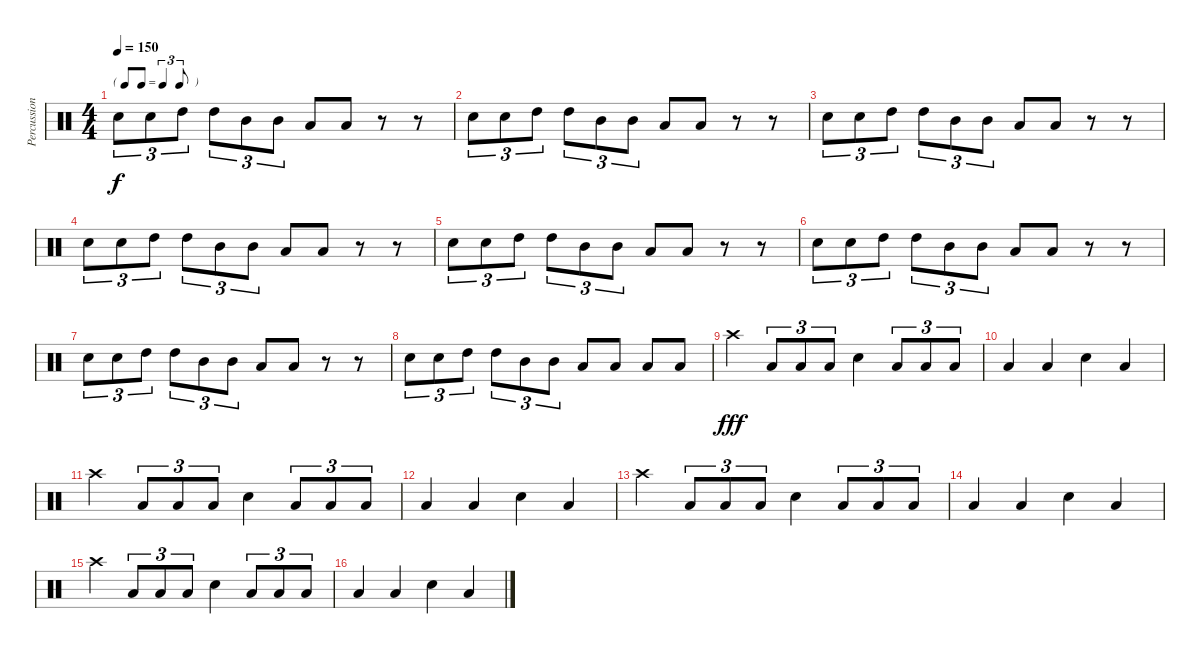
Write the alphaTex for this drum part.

\track ("Percussion" "Percussion") {instrument percussion}
\staff {score}
\articulation defaults
\ts (4 4)
\tf triplet8th
\tempo 150
\clef neutral
\ks c "Electric Snare (hit)".8{tu (3 2) dy f} "Electric Snare (hit)".8{tu (3 2)} "High Tom (hit)".8{tu (3 2)} "High Tom (hit)".8{tu (3 2)} "Mid Tom (hit)".8{tu (3 2)} "Mid Tom (hit)".8{tu (3 2)} "Low Tom (hit)".8 "Low Tom (hit)".8
r.8 r.8 |
"Electric Snare (hit)".8{tu (3 2)} "Electric Snare (hit)".8{tu (3 2)} "High Tom (hit)".8{tu (3 2)} "High Tom (hit)".8{tu (3 2)} "Mid Tom (hit)".8{tu (3 2)} "Mid Tom (hit)".8{tu (3 2)} "Low Tom (hit)".8 "Low Tom (hit)".8 r.8 r.8 |
"Electric Snare (hit)".8{tu (3 2)} "Electric Snare (hit)".8{tu (3 2)} "High Tom (hit)".8{tu (3 2)} "High Tom (hit)".8{tu (3 2)} "Mid Tom (hit)".8{tu (3 2)} "Mid Tom (hit)".8{tu (3 2)} "Low Tom (hit)".8 "Low Tom (hit)".8 r.8 r.8 |
"Electric Snare (hit)".8{tu (3 2)} "Electric Snare (hit)".8{tu (3 2)} "High Tom (hit)".8{tu (3 2)} "High Tom (hit)".8{tu (3 2)} "Mid Tom (hit)".8{tu (3 2)} "Mid Tom (hit)".8{tu (3 2)} "Low Tom (hit)".8 "Low Tom (hit)".8 r.8 r.8 |
"Electric Snare (hit)".8{tu (3 2)} "Electric Snare (hit)".8{tu (3 2)} "High Tom (hit)".8{tu (3 2)} "High Tom (hit)".8{tu (3 2)} "Mid Tom (hit)".8{tu (3 2)} "Mid Tom (hit)".8{tu (3 2)} "Low Tom (hit)".8 "Low Tom (hit)".8 r.8 r.8 |
"Electric Snare (hit)".8{tu (3 2)} "Electric Snare (hit)".8{tu (3 2)} "High Tom (hit)".8{tu (3 2)} "High Tom (hit)".8{tu (3 2)} "Mid Tom (hit)".8{tu (3 2)} "Mid Tom (hit)".8{tu (3 2)} "Low Tom (hit)".8 "Low Tom (hit)".8 r.8 r.8 |
"Electric Snare (hit)".8{tu (3 2)} "Electric Snare (hit)".8{tu (3 2)} "High Tom (hit)".8{tu (3 2)} "High Tom (hit)".8{tu (3 2)} "Mid Tom (hit)".8{tu (3 2)} "Mid Tom (hit)".8{tu (3 2)} "Low Tom (hit)".8 "Low Tom (hit)".8 r.8 r.8 |
"Electric Snare (hit)".8{tu (3 2)} "Electric Snare (hit)".8{tu (3 2)} "High Tom (hit)".8{tu (3 2)} "High Tom (hit)".8{tu (3 2)} "Mid Tom (hit)".8{tu (3 2)} "Mid Tom (hit)".8{tu (3 2)} "Low Tom (hit)".8 "Low Tom (hit)".8 "Low Tom (hit)".8 "Low Tom (hit)".8 |
"Crash high (hit)".4{dy fff} "Low Tom (hit)".8{tu (3 2)} "Low Tom (hit)".8{tu (3 2)} "Low Tom (hit)".8{tu (3 2)} "Electric Snare (hit)".4 "Low Tom (hit)".8{tu (3 2)} "Low Tom (hit)".8{tu (3 2)} "Low Tom (hit)".8{tu (3 2)} |
"Low Tom (hit)".4 "Low Tom (hit)".4 "Electric Snare (hit)".4 "Low Tom (hit)".4 |
"Crash high (hit)".4 "Low Tom (hit)".8{tu (3 2)} "Low Tom (hit)".8{tu (3 2)} "Low Tom (hit)".8{tu (3 2)} "Electric Snare (hit)".4 "Low Tom (hit)".8{tu (3 2)} "Low Tom (hit)".8{tu (3 2)} "Low Tom (hit)".8{tu (3 2)} |
"Low Tom (hit)".4 "Low Tom (hit)".4 "Electric Snare (hit)".4 "Low Tom (hit)".4 |
"Crash high (hit)".4 "Low Tom (hit)".8{tu (3 2)} "Low Tom (hit)".8{tu (3 2)} "Low Tom (hit)".8{tu (3 2)} "Electric Snare (hit)".4 "Low Tom (hit)".8{tu (3 2)} "Low Tom (hit)".8{tu (3 2)} "Low Tom (hit)".8{tu (3 2)} |
"Low Tom (hit)".4 "Low Tom (hit)".4 "Electric Snare (hit)".4 "Low Tom (hit)".4 |
"Crash high (hit)".4 "Low Tom (hit)".8{tu (3 2)} "Low Tom (hit)".8{tu (3 2)} "Low Tom (hit)".8{tu (3 2)} "Electric Snare (hit)".4 "Low Tom (hit)".8{tu (3 2)} "Low Tom (hit)".8{tu (3 2)} "Low Tom (hit)".8{tu (3 2)} |
"Low Tom (hit)".4 "Low Tom (hit)".4 "Electric Snare (hit)".4 "Low Tom (hit)".4
